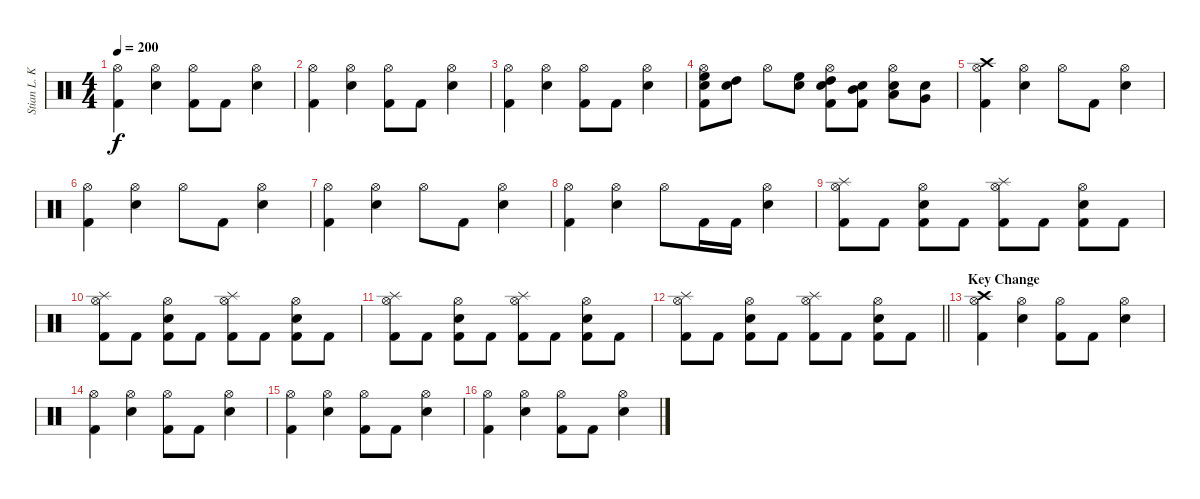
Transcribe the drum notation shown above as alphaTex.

\track ("Stian L. Kristoffersen - Drums" "Stian L. K") {instrument percussion}
\staff {score}
\articulation defaults
\ts (4 4)
\tempo 200
\clef neutral
\ks c
("Hi-Hat (open)" "Kick (hit) 2").4{dy f} ("Hi-Hat (open)" "Electric Snare (hit)").4 ("Hi-Hat (open)" "Kick (hit) 2").8 "Kick (hit) 2".8 ("Hi-Hat (open)" "Electric Snare (hit)").4 |
("Hi-Hat (open)" "Kick (hit) 2").4 ("Hi-Hat (open)" "Electric Snare (hit)").4 ("Hi-Hat (open)" "Kick (hit) 2").8 "Kick (hit) 2".8 ("Hi-Hat (open)" "Electric Snare (hit)").4 |
("Hi-Hat (open)" "Kick (hit) 2").4 ("Hi-Hat (open)" "Electric Snare (hit)").4 ("Hi-Hat (open)" "Kick (hit) 2").8 "Kick (hit) 2".8 ("Hi-Hat (open)" "Electric Snare (hit)").4 |
("Hi-Hat (open)" "Electric Snare (hit)" "High Floor Tom (hit)" "Kick (hit) 2").8 ("Electric Snare (hit)" "High Tom (hit)").8 "Hi-Hat (open)".8 ("Electric Snare (hit)" "High Floor Tom (hit)").8 ("Hi-Hat (open)" "Electric Snare (hit)" "High Tom (hit)" "Kick (hit) 2").8 ("Electric Snare (hit)" "Mid Tom (hit)" "Kick (hit) 2").8 ("Hi-Hat (open)" "Electric Snare (hit)" "Low Tom (hit)").8 ("Electric Snare (hit)" "Very Low Tom (hit)").8 |
("Crash high (hit)" "Hi-Hat (open)" "Kick (hit) 2").4 ("Hi-Hat (open)" "Electric Snare (hit)").4 "Hi-Hat (open)".8 "Kick (hit) 2".8 ("Hi-Hat (open)" "Electric Snare (hit)").4 |
("Hi-Hat (open)" "Kick (hit) 2").4 ("Hi-Hat (open)" "Electric Snare (hit)").4 "Hi-Hat (open)".8 "Kick (hit) 2".8 ("Hi-Hat (open)" "Electric Snare (hit)").4 |
("Hi-Hat (open)" "Kick (hit) 2").4 ("Hi-Hat (open)" "Electric Snare (hit)").4 "Hi-Hat (open)".8 "Kick (hit) 2".8 ("Hi-Hat (open)" "Electric Snare (hit)").4 |
("Hi-Hat (open)" "Kick (hit) 2").4 ("Hi-Hat (open)" "Electric Snare (hit)").4 "Hi-Hat (open)".8 "Kick (hit) 2".16 "Kick (hit) 2".16 ("Hi-Hat (open)" "Electric Snare (hit)").4 |
("Splash (hit)" "Hi-Hat (open)" "Kick (hit) 2").8 "Kick (hit) 2".8 ("Hi-Hat (open)" "Electric Snare (hit)" "Kick (hit) 2").8 "Kick (hit) 2".8 ("Splash (hit)" "Hi-Hat (open)" "Kick (hit) 2").8 "Kick (hit) 2".8 ("Hi-Hat (open)" "Electric Snare (hit)" "Kick (hit) 2").8 "Kick (hit) 2".8 |
("Splash (hit)" "Hi-Hat (open)" "Kick (hit) 2").8 "Kick (hit) 2".8 ("Hi-Hat (open)" "Electric Snare (hit)" "Kick (hit) 2").8 "Kick (hit) 2".8 ("Splash (hit)" "Hi-Hat (open)" "Kick (hit) 2").8 "Kick (hit) 2".8 ("Hi-Hat (open)" "Electric Snare (hit)" "Kick (hit) 2").8 "Kick (hit) 2".8 |
("Splash (hit)" "Hi-Hat (open)" "Kick (hit) 2").8 "Kick (hit) 2".8 ("Hi-Hat (open)" "Electric Snare (hit)" "Kick (hit) 2").8 "Kick (hit) 2".8 ("Splash (hit)" "Hi-Hat (open)" "Kick (hit) 2").8 "Kick (hit) 2".8 ("Hi-Hat (open)" "Electric Snare (hit)" "Kick (hit) 2").8 "Kick (hit) 2".8 |
\barLineRight lightlight
("Splash (hit)" "Hi-Hat (open)" "Kick (hit) 2").8 "Kick (hit) 2".8 ("Hi-Hat (open)" "Electric Snare (hit)" "Kick (hit) 2").8 "Kick (hit) 2".8 ("Splash (hit)" "Hi-Hat (open)" "Kick (hit) 2").8 "Kick (hit) 2".8 ("Hi-Hat (open)" "Electric Snare (hit)" "Kick (hit) 2").8 "Kick (hit) 2".8 |
\section ("" "Key Change")
("Crash high (hit)" "Hi-Hat (open)" "Kick (hit) 2").4 ("Hi-Hat (open)" "Electric Snare (hit)").4 ("Hi-Hat (open)" "Kick (hit) 2").8 "Kick (hit) 2".8 ("Hi-Hat (open)" "Electric Snare (hit)").4 |
("Hi-Hat (open)" "Kick (hit) 2").4 ("Hi-Hat (open)" "Electric Snare (hit)").4 ("Hi-Hat (open)" "Kick (hit) 2").8 "Kick (hit) 2".8 ("Hi-Hat (open)" "Electric Snare (hit)").4 |
("Hi-Hat (open)" "Kick (hit) 2").4 ("Hi-Hat (open)" "Electric Snare (hit)").4 ("Hi-Hat (open)" "Kick (hit) 2").8 "Kick (hit) 2".8 ("Hi-Hat (open)" "Electric Snare (hit)").4 |
("Hi-Hat (open)" "Kick (hit) 2").4 ("Hi-Hat (open)" "Electric Snare (hit)").4 ("Hi-Hat (open)" "Kick (hit) 2").8 "Kick (hit) 2".8 ("Hi-Hat (open)" "Electric Snare (hit)").4
